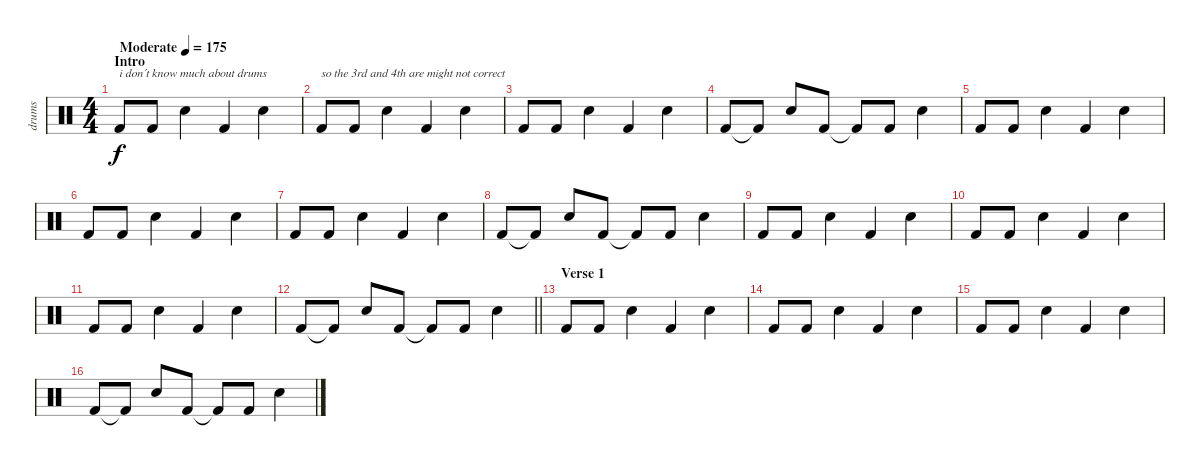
\track ("drums" "drums") {instrument percussion}
\staff {score}
\articulation defaults
\ts (4 4)
\section ("" "Intro")
\tempo (175 "Moderate")
\clef neutral
\ks c "Kick (hit) 2".8{txt "i don´t know much about drums" dy f} "Kick (hit) 2".8 "Snare (hit) 2".4 "Kick (hit) 2".4 "Snare (hit) 2".4
|
"Kick (hit) 2".8{txt "so the 3rd and 4th are might not correct"} "Kick (hit) 2".8 "Snare (hit) 2".4 "Kick (hit) 2".4 "Snare (hit) 2".4 |
"Kick (hit) 2".8 "Kick (hit) 2".8 "Snare (hit) 2".4 "Kick (hit) 2".4 "Snare (hit) 2".4 |
"Kick (hit) 2".8 "Kick (hit) 2"{t}.8 "Snare (hit) 2".8 "Kick (hit) 2".8 "Kick (hit) 2"{t}.8 "Kick (hit) 2".8 "Snare (hit) 2".4 |
"Kick (hit) 2".8 "Kick (hit) 2".8 "Snare (hit) 2".4 "Kick (hit) 2".4 "Snare (hit) 2".4 |
"Kick (hit) 2".8 "Kick (hit) 2".8 "Snare (hit) 2".4 "Kick (hit) 2".4 "Snare (hit) 2".4 |
"Kick (hit) 2".8 "Kick (hit) 2".8 "Snare (hit) 2".4 "Kick (hit) 2".4 "Snare (hit) 2".4 |
"Kick (hit) 2".8 "Kick (hit) 2"{t}.8 "Snare (hit) 2".8 "Kick (hit) 2".8 "Kick (hit) 2"{t}.8 "Kick (hit) 2".8 "Snare (hit) 2".4 |
"Kick (hit) 2".8 "Kick (hit) 2".8 "Snare (hit) 2".4 "Kick (hit) 2".4 "Snare (hit) 2".4 |
"Kick (hit) 2".8 "Kick (hit) 2".8 "Snare (hit) 2".4 "Kick (hit) 2".4 "Snare (hit) 2".4 |
"Kick (hit) 2".8 "Kick (hit) 2".8 "Snare (hit) 2".4 "Kick (hit) 2".4 "Snare (hit) 2".4 |
\barLineRight lightlight "Kick (hit) 2".8 "Kick (hit) 2"{t}.8 "Snare (hit) 2".8 "Kick (hit) 2".8 "Kick (hit) 2"{t}.8 "Kick (hit) 2".8 "Snare (hit) 2".4
|
\section ("" "Verse 1")
"Kick (hit) 2".8 "Kick (hit) 2".8 "Snare (hit) 2".4 "Kick (hit) 2".4 "Snare (hit) 2".4 |
"Kick (hit) 2".8 "Kick (hit) 2".8 "Snare (hit) 2".4 "Kick (hit) 2".4 "Snare (hit) 2".4 |
"Kick (hit) 2".8 "Kick (hit) 2".8 "Snare (hit) 2".4 "Kick (hit) 2".4 "Snare (hit) 2".4 |
"Kick (hit) 2".8 "Kick (hit) 2"{t}.8 "Snare (hit) 2".8 "Kick (hit) 2".8 "Kick (hit) 2"{t}.8 "Kick (hit) 2".8 "Snare (hit) 2".4
